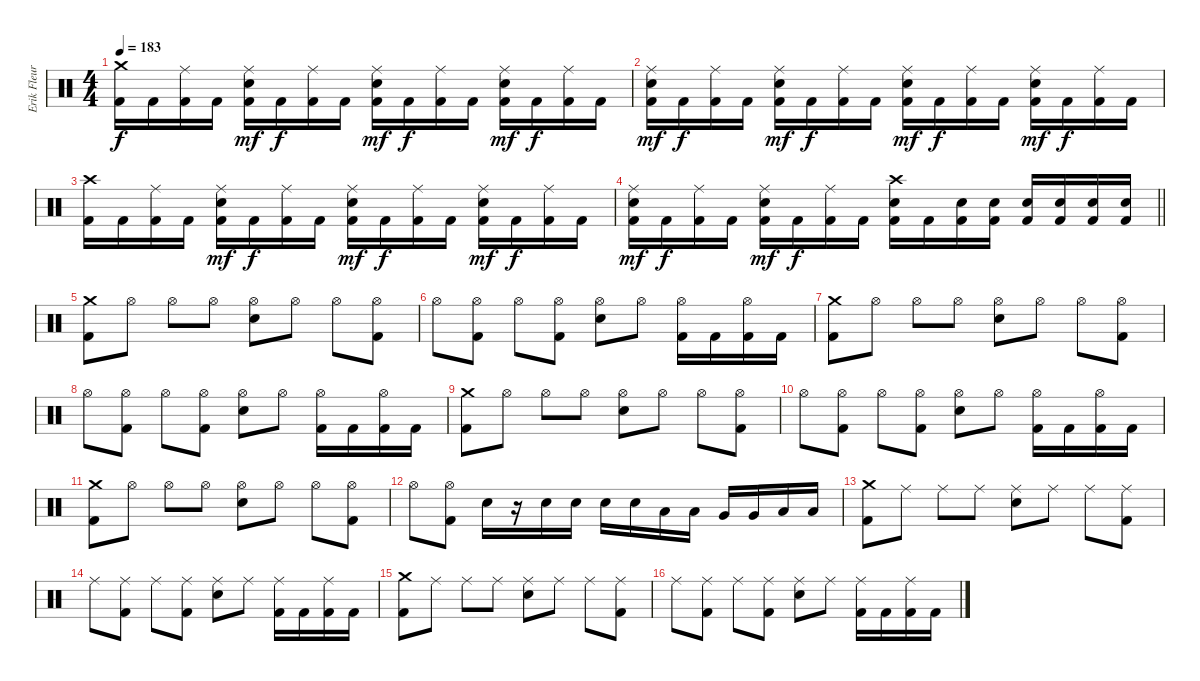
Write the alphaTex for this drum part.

\track ("Erik Fleuren" "Erik Fleur") {instrument percussion}
\staff {score}
\articulation defaults
\ts (4 4)
\tempo 183
\clef neutral
\ks c
("Crash medium (hit)" "Kick (hit) 2").16{dy f} "Kick (hit) 2".16 ("Ride (middle)" "Kick (hit) 2").16 "Kick (hit) 2".16 ("Ride (middle)" "Electric Snare (hit)" "Kick (hit) 2").16{dy mf} "Kick (hit) 2".16{dy f} ("Ride (middle)" "Kick (hit) 2").16 "Kick (hit) 2".16 ("Ride (middle)" "Electric Snare (hit)" "Kick (hit) 2").16{dy mf} "Kick (hit) 2".16{dy f} ("Ride (middle)" "Kick (hit) 2").16 "Kick (hit) 2".16 ("Ride (middle)" "Electric Snare (hit)" "Kick (hit) 2").16{dy mf} "Kick (hit) 2".16{dy f} ("Ride (middle)" "Kick (hit) 2").16 "Kick (hit) 2".16 |
("Ride (middle)" "Electric Snare (hit)" "Kick (hit) 2").16{dy mf} "Kick (hit) 2".16{dy f} ("Ride (middle)" "Kick (hit) 2").16 "Kick (hit) 2".16 ("Ride (middle)" "Electric Snare (hit)" "Kick (hit) 2").16{dy mf} "Kick (hit) 2".16{dy f} ("Ride (middle)" "Kick (hit) 2").16 "Kick (hit) 2".16 ("Ride (middle)" "Electric Snare (hit)" "Kick (hit) 2").16{dy mf} "Kick (hit) 2".16{dy f} ("Ride (middle)" "Kick (hit) 2").16 "Kick (hit) 2".16 ("Ride (middle)" "Electric Snare (hit)" "Kick (hit) 2").16{dy mf} "Kick (hit) 2".16{dy f} ("Ride (middle)" "Kick (hit) 2").16 "Kick (hit) 2".16 |
("Crash high (hit)" "Kick (hit) 2").16 "Kick (hit) 2".16 ("Ride (middle)" "Kick (hit) 2").16 "Kick (hit) 2".16 ("Ride (middle)" "Electric Snare (hit)" "Kick (hit) 2").16{dy mf} "Kick (hit) 2".16{dy f} ("Ride (middle)" "Kick (hit) 2").16 "Kick (hit) 2".16 ("Ride (middle)" "Electric Snare (hit)" "Kick (hit) 2").16{dy mf} "Kick (hit) 2".16{dy f} ("Ride (middle)" "Kick (hit) 2").16 "Kick (hit) 2".16 ("Ride (middle)" "Electric Snare (hit)" "Kick (hit) 2").16{dy mf} "Kick (hit) 2".16{dy f} ("Ride (middle)" "Kick (hit) 2").16 "Kick (hit) 2".16 |
\barLineRight lightlight
("Ride (middle)" "Electric Snare (hit)" "Kick (hit) 2").16{dy mf} "Kick (hit) 2".16{dy f} ("Ride (middle)" "Kick (hit) 2").16 "Kick (hit) 2".16 ("Ride (middle)" "Electric Snare (hit)" "Kick (hit) 2").16{dy mf} "Kick (hit) 2".16{dy f} ("Ride (middle)" "Kick (hit) 2").16 "Kick (hit) 2".16 ("Crash high (hit)" "Electric Snare (hit)" "Kick (hit) 2").16 "Kick (hit) 2".16 ("Electric Snare (hit)" "Kick (hit) 2").16 ("Electric Snare (hit)" "Kick (hit) 2").16 ("Electric Snare (hit)" "Kick (hit) 2").16 ("Electric Snare (hit)" "Kick (hit) 2").16 ("Electric Snare (hit)" "Kick (hit) 2").16 ("Electric Snare (hit)" "Kick (hit) 2").16 |
("Crash medium (hit)" "Kick (hit) 2").8 "Hi-Hat (open)".8 "Hi-Hat (open)".8 "Hi-Hat (open)".8 ("Hi-Hat (open)" "Electric Snare (hit)").8 "Hi-Hat (open)".8 "Hi-Hat (open)".8 ("Hi-Hat (open)" "Kick (hit) 2").8 |
"Hi-Hat (open)".8 ("Hi-Hat (open)" "Kick (hit) 2").8 "Hi-Hat (open)".8 ("Hi-Hat (open)" "Kick (hit) 2").8 ("Hi-Hat (open)" "Electric Snare (hit)").8 "Hi-Hat (open)".8 ("Hi-Hat (open)" "Kick (hit) 2").16 "Kick (hit) 2".16 ("Hi-Hat (open)" "Kick (hit) 2").16 "Kick (hit) 2".16 |
("Crash medium (hit)" "Kick (hit) 2").8 "Hi-Hat (open)".8 "Hi-Hat (open)".8 "Hi-Hat (open)".8 ("Hi-Hat (open)" "Electric Snare (hit)").8 "Hi-Hat (open)".8 "Hi-Hat (open)".8 ("Hi-Hat (open)" "Kick (hit) 2").8 |
"Hi-Hat (open)".8 ("Hi-Hat (open)" "Kick (hit) 2").8 "Hi-Hat (open)".8 ("Hi-Hat (open)" "Kick (hit) 2").8 ("Hi-Hat (open)" "Electric Snare (hit)").8 "Hi-Hat (open)".8 ("Hi-Hat (open)" "Kick (hit) 2").16 "Kick (hit) 2".16 ("Hi-Hat (open)" "Kick (hit) 2").16 "Kick (hit) 2".16 |
("Crash medium (hit)" "Kick (hit) 2").8 "Hi-Hat (open)".8 "Hi-Hat (open)".8 "Hi-Hat (open)".8 ("Hi-Hat (open)" "Electric Snare (hit)").8 "Hi-Hat (open)".8 "Hi-Hat (open)".8 ("Hi-Hat (open)" "Kick (hit) 2").8 |
"Hi-Hat (open)".8 ("Hi-Hat (open)" "Kick (hit) 2").8 "Hi-Hat (open)".8 ("Hi-Hat (open)" "Kick (hit) 2").8 ("Hi-Hat (open)" "Electric Snare (hit)").8 "Hi-Hat (open)".8 ("Hi-Hat (open)" "Kick (hit) 2").16 "Kick (hit) 2".16 ("Hi-Hat (open)" "Kick (hit) 2").16 "Kick (hit) 2".16 |
("Crash medium (hit)" "Kick (hit) 2").8 "Hi-Hat (open)".8 "Hi-Hat (open)".8 "Hi-Hat (open)".8 ("Hi-Hat (open)" "Electric Snare (hit)").8 "Hi-Hat (open)".8 "Hi-Hat (open)".8 ("Hi-Hat (open)" "Kick (hit) 2").8 |
"Hi-Hat (open)".8 ("Hi-Hat (open)" "Kick (hit) 2").8 "Electric Snare (hit)".16 r.16 "Electric Snare (hit)".16 "Electric Snare (hit)".16 "Electric Snare (hit)".16 "Electric Snare (hit)".16 "Low Tom (hit)".16 "Low Tom (hit)".16 "Very Low Tom (hit)".16 "Very Low Tom (hit)".16 "Low Floor Tom (hit)".16 "Low Floor Tom (hit)".16 |
("Crash medium (hit)" "Kick (hit) 2").8 "Ride (middle)".8 "Ride (middle)".8 "Ride (middle)".8 ("Ride (middle)" "Electric Snare (hit)").8 "Ride (middle)".8 "Ride (middle)".8 ("Ride (middle)" "Kick (hit) 2").8 |
"Ride (middle)".8 ("Ride (middle)" "Kick (hit) 2").8 "Ride (middle)".8 ("Ride (middle)" "Kick (hit) 2").8 ("Ride (middle)" "Electric Snare (hit)").8 "Ride (middle)".8 ("Ride (middle)" "Kick (hit) 2").16 "Kick (hit) 2".16 ("Ride (middle)" "Kick (hit) 2").16 "Kick (hit) 2".16 |
("Crash medium (hit)" "Kick (hit) 2").8 "Ride (middle)".8 "Ride (middle)".8 "Ride (middle)".8 ("Ride (middle)" "Electric Snare (hit)").8 "Ride (middle)".8 "Ride (middle)".8 ("Ride (middle)" "Kick (hit) 2").8 |
"Ride (middle)".8 ("Ride (middle)" "Kick (hit) 2").8 "Ride (middle)".8 ("Ride (middle)" "Kick (hit) 2").8 ("Ride (middle)" "Electric Snare (hit)").8 "Ride (middle)".8 ("Ride (middle)" "Kick (hit) 2").16 "Kick (hit) 2".16 ("Ride (middle)" "Kick (hit) 2").16 "Kick (hit) 2".16
